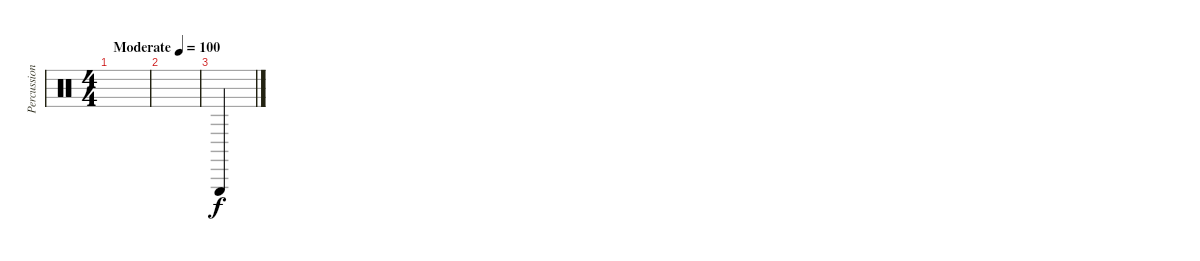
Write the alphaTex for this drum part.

\track ("Percussion" "Percussion") {instrument percussion}
\staff {score}
\articulation defaults
\ts (4 4)
\tempo (100 "Moderate")
\clef neutral
\ks c
|
|
"Triangle (hit)".4
